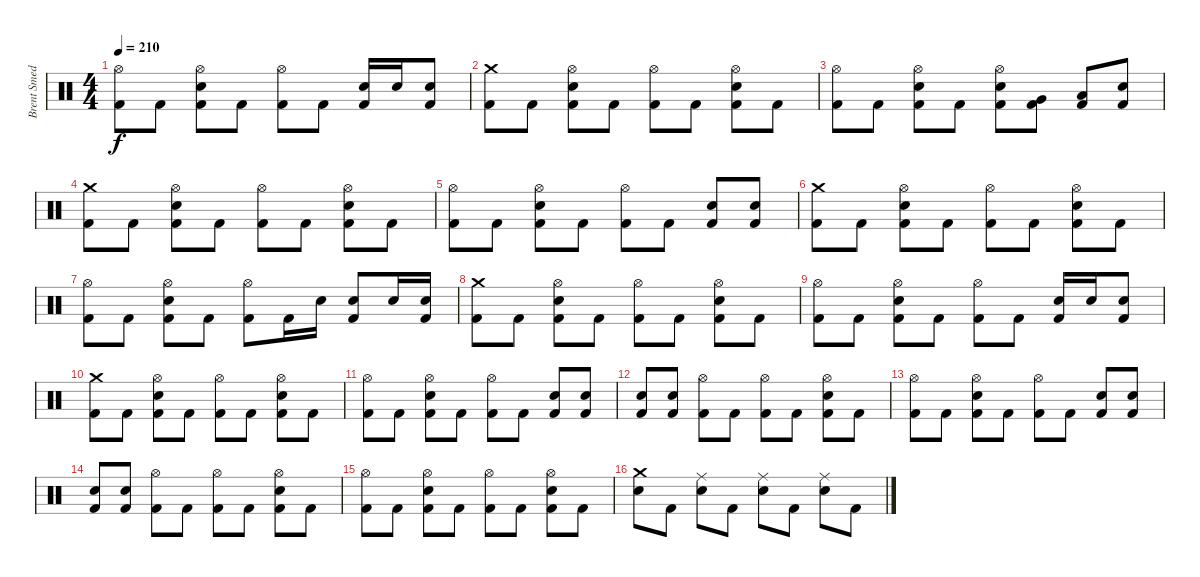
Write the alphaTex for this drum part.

\track ("Brent Smedley" "Brent Smed") {instrument percussion}
\staff {score}
\articulation defaults
\ts (4 4)
\tempo 210
\clef neutral
\ks c
("Hi-Hat (open)" "Kick (hit) 2").8{dy f} "Kick (hit) 2".8 ("Hi-Hat (open)" "Electric Snare (hit)" "Kick (hit) 2").8 "Kick (hit) 2".8 ("Hi-Hat (open)" "Kick (hit) 2").8 "Kick (hit) 2".8 ("Electric Snare (hit)" "Kick (hit) 2").16 "Electric Snare (hit)".16 ("Electric Snare (hit)" "Kick (hit) 2").8 |
("Crash medium (hit)" "Kick (hit) 2").8 "Kick (hit) 2".8 ("Hi-Hat (open)" "Electric Snare (hit)" "Kick (hit) 2").8 "Kick (hit) 2".8 ("Hi-Hat (open)" "Kick (hit) 2").8 "Kick (hit) 2".8 ("Hi-Hat (open)" "Electric Snare (hit)" "Kick (hit) 2").8 "Kick (hit) 2".8 |
("Hi-Hat (open)" "Kick (hit) 2").8 "Kick (hit) 2".8 ("Hi-Hat (open)" "Electric Snare (hit)" "Kick (hit) 2").8 "Kick (hit) 2".8 ("Hi-Hat (open)" "Electric Snare (hit)" "Kick (hit) 2").8 ("Very Low Tom (hit)" "Kick (hit) 2").8 ("Low Floor Tom (hit)" "Kick (hit) 2").8 ("Electric Snare (hit)" "Kick (hit) 2").8 |
("Crash medium (hit)" "Kick (hit) 2").8 "Kick (hit) 2".8 ("Hi-Hat (open)" "Electric Snare (hit)" "Kick (hit) 2").8 "Kick (hit) 2".8 ("Hi-Hat (open)" "Kick (hit) 2").8 "Kick (hit) 2".8 ("Hi-Hat (open)" "Electric Snare (hit)" "Kick (hit) 2").8 "Kick (hit) 2".8 |
("Hi-Hat (open)" "Kick (hit) 2").8 "Kick (hit) 2".8 ("Hi-Hat (open)" "Electric Snare (hit)" "Kick (hit) 2").8 "Kick (hit) 2".8 ("Hi-Hat (open)" "Kick (hit) 2").8 "Kick (hit) 2".8 ("Electric Snare (hit)" "Kick (hit) 2").8 ("Electric Snare (hit)" "Kick (hit) 2").8 |
("Crash medium (hit)" "Kick (hit) 2").8 "Kick (hit) 2".8 ("Hi-Hat (open)" "Electric Snare (hit)" "Kick (hit) 2").8 "Kick (hit) 2".8 ("Hi-Hat (open)" "Kick (hit) 2").8 "Kick (hit) 2".8 ("Hi-Hat (open)" "Electric Snare (hit)" "Kick (hit) 2").8 "Kick (hit) 2".8 |
("Hi-Hat (open)" "Kick (hit) 2").8 "Kick (hit) 2".8 ("Hi-Hat (open)" "Electric Snare (hit)" "Kick (hit) 2").8 "Kick (hit) 2".8 ("Hi-Hat (open)" "Kick (hit) 2").8 "Kick (hit) 2".16 "Electric Snare (hit)".16 ("Electric Snare (hit)" "Kick (hit) 2").8 "Electric Snare (hit)".16 ("Electric Snare (hit)" "Kick (hit) 2").16 |
("Crash medium (hit)" "Kick (hit) 2").8 "Kick (hit) 2".8 ("Hi-Hat (open)" "Electric Snare (hit)" "Kick (hit) 2").8 "Kick (hit) 2".8 ("Hi-Hat (open)" "Kick (hit) 2").8 "Kick (hit) 2".8 ("Hi-Hat (open)" "Electric Snare (hit)" "Kick (hit) 2").8 "Kick (hit) 2".8 |
("Hi-Hat (open)" "Kick (hit) 2").8 "Kick (hit) 2".8 ("Hi-Hat (open)" "Electric Snare (hit)" "Kick (hit) 2").8 "Kick (hit) 2".8 ("Hi-Hat (open)" "Kick (hit) 2").8 "Kick (hit) 2".8 ("Electric Snare (hit)" "Kick (hit) 2").16 "Electric Snare (hit)".16 ("Electric Snare (hit)" "Kick (hit) 2").8 |
("Crash medium (hit)" "Kick (hit) 2").8 "Kick (hit) 2".8 ("Hi-Hat (open)" "Electric Snare (hit)" "Kick (hit) 2").8 "Kick (hit) 2".8 ("Hi-Hat (open)" "Kick (hit) 2").8 "Kick (hit) 2".8 ("Hi-Hat (open)" "Electric Snare (hit)" "Kick (hit) 2").8 "Kick (hit) 2".8 |
("Hi-Hat (open)" "Kick (hit) 2").8 "Kick (hit) 2".8 ("Hi-Hat (open)" "Electric Snare (hit)" "Kick (hit) 2").8 "Kick (hit) 2".8 ("Hi-Hat (open)" "Kick (hit) 2").8 "Kick (hit) 2".8 ("Electric Snare (hit)" "Kick (hit) 2").8 ("Electric Snare (hit)" "Kick (hit) 2").8 |
("Electric Snare (hit)" "Kick (hit) 2").8 ("Electric Snare (hit)" "Kick (hit) 2").8 ("Hi-Hat (open)" "Kick (hit) 2").8 "Kick (hit) 2".8 ("Hi-Hat (open)" "Kick (hit) 2").8 "Kick (hit) 2".8 ("Hi-Hat (open)" "Electric Snare (hit)" "Kick (hit) 2").8 "Kick (hit) 2".8 |
("Hi-Hat (open)" "Kick (hit) 2").8 "Kick (hit) 2".8 ("Hi-Hat (open)" "Electric Snare (hit)" "Kick (hit) 2").8 "Kick (hit) 2".8 ("Hi-Hat (open)" "Kick (hit) 2").8 "Kick (hit) 2".8 ("Electric Snare (hit)" "Kick (hit) 2").8 ("Electric Snare (hit)" "Kick (hit) 2").8 |
("Electric Snare (hit)" "Kick (hit) 2").8 ("Electric Snare (hit)" "Kick (hit) 2").8 ("Hi-Hat (open)" "Kick (hit) 2").8 "Kick (hit) 2".8 ("Hi-Hat (open)" "Kick (hit) 2").8 "Kick (hit) 2".8 ("Hi-Hat (open)" "Electric Snare (hit)" "Kick (hit) 2").8 "Kick (hit) 2".8 |
("Hi-Hat (open)" "Kick (hit) 2").8 "Kick (hit) 2".8 ("Hi-Hat (open)" "Electric Snare (hit)" "Kick (hit) 2").8 "Kick (hit) 2".8 ("Hi-Hat (open)" "Kick (hit) 2").8 "Kick (hit) 2".8 ("Hi-Hat (open)" "Electric Snare (hit)" "Kick (hit) 2").8 "Kick (hit) 2".8 |
("Crash medium (hit)" "Electric Snare (hit)").8 "Kick (hit) 2".8 ("Ride (middle)" "Electric Snare (hit)").8 "Kick (hit) 2".8 ("Ride (middle)" "Electric Snare (hit)").8 "Kick (hit) 2".8 ("Ride (middle)" "Electric Snare (hit)").8 "Kick (hit) 2".8
